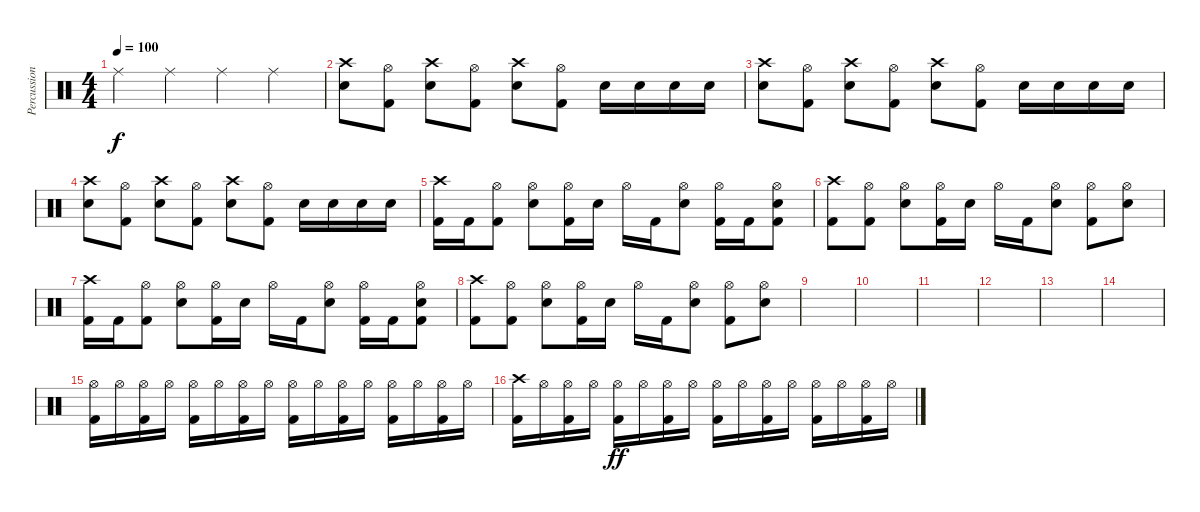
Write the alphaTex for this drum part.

\track ("Percussions" "Percussion") {instrument percussion}
\staff {score}
\articulation defaults
\ts (4 4)
\tempo 100
\clef neutral
\ks c "Ride (middle)".4{dy f} "Ride (middle)".4 "Ride (middle)".4 "Ride (middle)".4
|
("Crash high (hit)" "Snare (hit) 2").8 ("Hi-Hat (open)" "Kick (hit) 2").8 ("Crash high (hit)" "Snare (hit) 2").8 ("Hi-Hat (open)" "Kick (hit) 2").8 ("Crash high (hit)" "Snare (hit) 2").8 ("Hi-Hat (open)" "Kick (hit) 2").8 "Snare (hit) 2".16 "Snare (hit) 2".16 "Snare (hit) 2".16 "Snare (hit) 2".16 |
("Crash high (hit)" "Snare (hit) 2").8 ("Hi-Hat (open)" "Kick (hit) 2").8 ("Crash high (hit)" "Snare (hit) 2").8 ("Hi-Hat (open)" "Kick (hit) 2").8 ("Crash high (hit)" "Snare (hit) 2").8 ("Hi-Hat (open)" "Kick (hit) 2").8 "Snare (hit) 2".16 "Snare (hit) 2".16 "Snare (hit) 2".16 "Snare (hit) 2".16 |
("Crash high (hit)" "Snare (hit) 2").8 ("Hi-Hat (open)" "Kick (hit) 2").8 ("Crash high (hit)" "Snare (hit) 2").8 ("Hi-Hat (open)" "Kick (hit) 2").8 ("Crash high (hit)" "Snare (hit) 2").8 ("Hi-Hat (open)" "Kick (hit) 2").8 "Snare (hit) 2".16 "Snare (hit) 2".16 "Snare (hit) 2".16 "Snare (hit) 2".16 |
("Crash high (hit)" "Kick (hit) 2").16 "Kick (hit) 2".16 ("Hi-Hat (open)" "Kick (hit) 2").8 ("Hi-Hat (open)" "Snare (hit) 2").8 ("Hi-Hat (open)" "Kick (hit) 2").16 "Snare (hit) 2".16 "Hi-Hat (open)".16 "Kick (hit) 2".16 ("Hi-Hat (open)" "Snare (hit) 2").8 ("Hi-Hat (open)" "Kick (hit) 2").16 "Kick (hit) 2".16 ("Hi-Hat (open)" "Snare (hit) 2" "Kick (hit) 2").8 |
("Crash high (hit)" "Kick (hit) 2").8 ("Hi-Hat (open)" "Kick (hit) 2").8 ("Hi-Hat (open)" "Snare (hit) 2").8 ("Hi-Hat (open)" "Kick (hit) 2").16 "Snare (hit) 2".16 "Hi-Hat (open)".16 "Kick (hit) 2".16 ("Hi-Hat (open)" "Snare (hit) 2").8 ("Hi-Hat (open)" "Kick (hit) 2").8 ("Hi-Hat (open)" "Snare (hit) 2").8 |
("Crash high (hit)" "Kick (hit) 2").16 "Kick (hit) 2".16 ("Hi-Hat (open)" "Kick (hit) 2").8 ("Hi-Hat (open)" "Snare (hit) 2").8 ("Hi-Hat (open)" "Kick (hit) 2").16 "Snare (hit) 2".16 "Hi-Hat (open)".16 "Kick (hit) 2".16 ("Hi-Hat (open)" "Snare (hit) 2").8 ("Hi-Hat (open)" "Kick (hit) 2").16 "Kick (hit) 2".16 ("Hi-Hat (open)" "Snare (hit) 2" "Kick (hit) 2").8 |
("Crash high (hit)" "Kick (hit) 2").8 ("Hi-Hat (open)" "Kick (hit) 2").8 ("Hi-Hat (open)" "Snare (hit) 2").8 ("Hi-Hat (open)" "Kick (hit) 2").16 "Snare (hit) 2".16 "Hi-Hat (open)".16 "Kick (hit) 2".16 ("Hi-Hat (open)" "Snare (hit) 2").8 ("Hi-Hat (open)" "Kick (hit) 2").8 ("Hi-Hat (open)" "Snare (hit) 2").8 |
|
|
|
|
|
|
("Hi-Hat (open)" "Kick (hit) 2").16{volume 13} "Hi-Hat (open)".16 ("Hi-Hat (open)" "Kick (hit) 2").16 "Hi-Hat (open)".16 ("Hi-Hat (open)" "Kick (hit) 2").16 "Hi-Hat (open)".16 ("Hi-Hat (open)" "Kick (hit) 2").16 "Hi-Hat (open)".16 ("Hi-Hat (open)" "Kick (hit) 2").16 "Hi-Hat (open)".16 ("Hi-Hat (open)" "Kick (hit) 2").16 "Hi-Hat (open)".16 ("Hi-Hat (open)" "Kick (hit) 2").16 "Hi-Hat (open)".16 ("Hi-Hat (open)" "Kick (hit) 2").16 "Hi-Hat (open)".16 |
("Crash high (hit)" "Kick (hit) 2").16 "Hi-Hat (open)".16 ("Hi-Hat (open)" "Kick (hit) 2").16 "Hi-Hat (open)".16 ("Hi-Hat (open)" "Kick (hit) 2").16{dy ff} "Hi-Hat (open)".16 ("Hi-Hat (open)" "Kick (hit) 2").16 "Hi-Hat (open)".16 ("Hi-Hat (open)" "Kick (hit) 2").16 "Hi-Hat (open)".16 ("Hi-Hat (open)" "Kick (hit) 2").16 "Hi-Hat (open)".16 ("Hi-Hat (open)" "Kick (hit) 2").16 "Hi-Hat (open)".16 ("Hi-Hat (open)" "Kick (hit) 2").16 "Hi-Hat (open)".16
